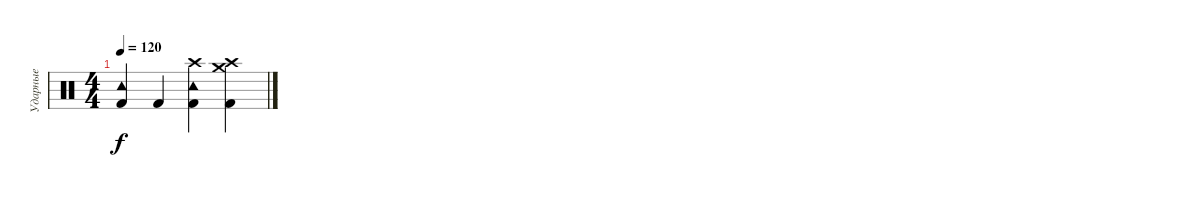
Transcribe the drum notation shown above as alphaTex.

\track ("Ударные" "Ударные") {instrument percussion}
\staff {score}
\articulation defaults
\ts (4 4)
\tempo 120
\clef neutral
\ks c
("Kick (hit) 2" "Tambourine (hit)").4{dy f} "Kick (hit) 2".4 ("Kick (hit) 2" "Tambourine (hit)" "Crash high (hit)").4 ("Kick (hit) 2" "Crash high (hit)" "Crash medium (hit)").4
